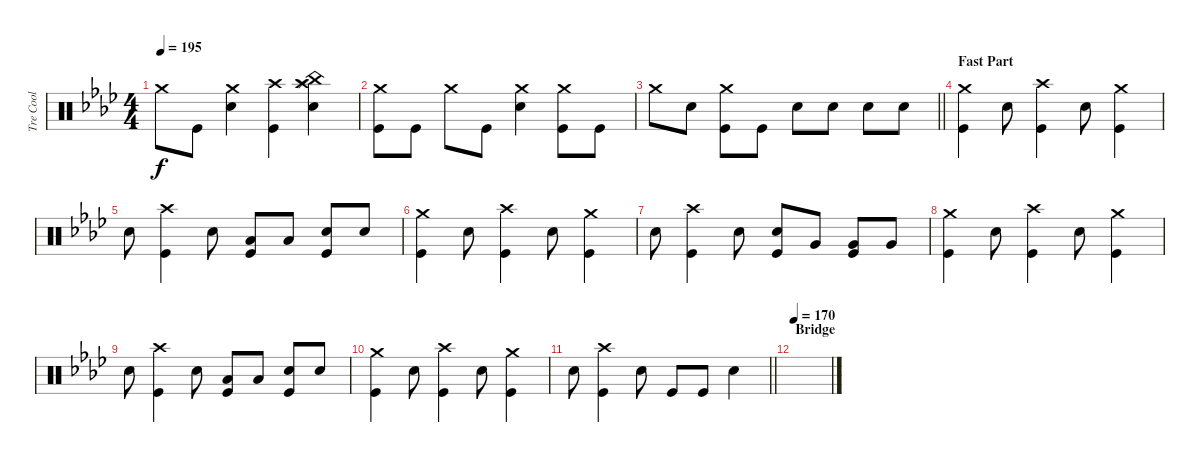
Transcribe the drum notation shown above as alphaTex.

\track ("Tre Cool" "Tre Cool") {instrument percussion}
\staff {score}
\articulation defaults
\ts (4 4)
\tempo 195
\clef neutral
\ks ab "Crash medium (hit)".8{dy f} "Kick (hit)".8
("Crash medium (hit)" "Electric Snare (hit)").4 ("Crash high (hit)" "Kick (hit)").4 ("China (hit)" "Splash (hit)" "Electric Snare (hit)" "Crash high (hit)").4 |
("Crash medium (hit)" "Kick (hit)").8 "Kick (hit)".8 "Crash medium (hit)".8 "Kick (hit)".8 ("Crash medium (hit)" "Electric Snare (hit)").4 ("Crash medium (hit)" "Kick (hit)").8 "Kick (hit)".8 |
\barLineRight lightlight "Crash medium (hit)".8 "Electric Snare (hit)".8
("Crash medium (hit)" "Kick (hit)").8 "Kick (hit)".8 "Electric Snare (hit)".8 "Electric Snare (hit)".8 "Electric Snare (hit)".8 "Electric Snare (hit)".8 |
\section ("" "Fast Part")
("Crash medium (hit)" "Kick (hit)").4 "Electric Snare (hit)".8 ("Crash high (hit)" "Kick (hit)").4 "Electric Snare (hit)".8 ("Crash medium (hit)" "Kick (hit)").4 |
"Electric Snare (hit)".8 ("Crash high (hit)" "Kick (hit)").4 "Electric Snare (hit)".8 ("Low Tom (hit)" "Kick (hit)").8 "Low Tom (hit)".8 ("Electric Snare (hit)" "Kick (hit)").8 "Electric Snare (hit)".8 |
("Crash medium (hit)" "Kick (hit)").4 "Electric Snare (hit)".8 ("Crash high (hit)" "Kick (hit)").4 "Electric Snare (hit)".8 ("Crash medium (hit)" "Kick (hit)").4 |
"Electric Snare (hit)".8 ("Crash high (hit)" "Kick (hit)").4 "Electric Snare (hit)".8 ("Electric Snare (hit)" "Kick (hit)").8 "Very Low Tom (hit)".8 ("Very Low Tom (hit)" "Kick (hit)").8 "Very Low Tom (hit)".8 |
("Crash medium (hit)" "Kick (hit)").4 "Electric Snare (hit)".8 ("Crash high (hit)" "Kick (hit)").4 "Electric Snare (hit)".8 ("Crash medium (hit)" "Kick (hit)").4 |
"Electric Snare (hit)".8 ("Crash high (hit)" "Kick (hit)").4 "Electric Snare (hit)".8 ("Low Tom (hit)" "Kick (hit)").8 "Low Tom (hit)".8 ("Electric Snare (hit)" "Kick (hit)").8 "Electric Snare (hit)".8 |
("Crash medium (hit)" "Kick (hit)").4 "Electric Snare (hit)".8 ("Crash high (hit)" "Kick (hit)").4 "Electric Snare (hit)".8 ("Crash medium (hit)" "Kick (hit)").4 |
\barLineRight lightlight "Electric Snare (hit)".8
("Crash high (hit)" "Kick (hit)").4 "Electric Snare (hit)".8 "Kick (hit)".8 "Kick (hit)".8 "Electric Snare (hit)".4 |
\section ("" "Bridge")
\tempo 170
